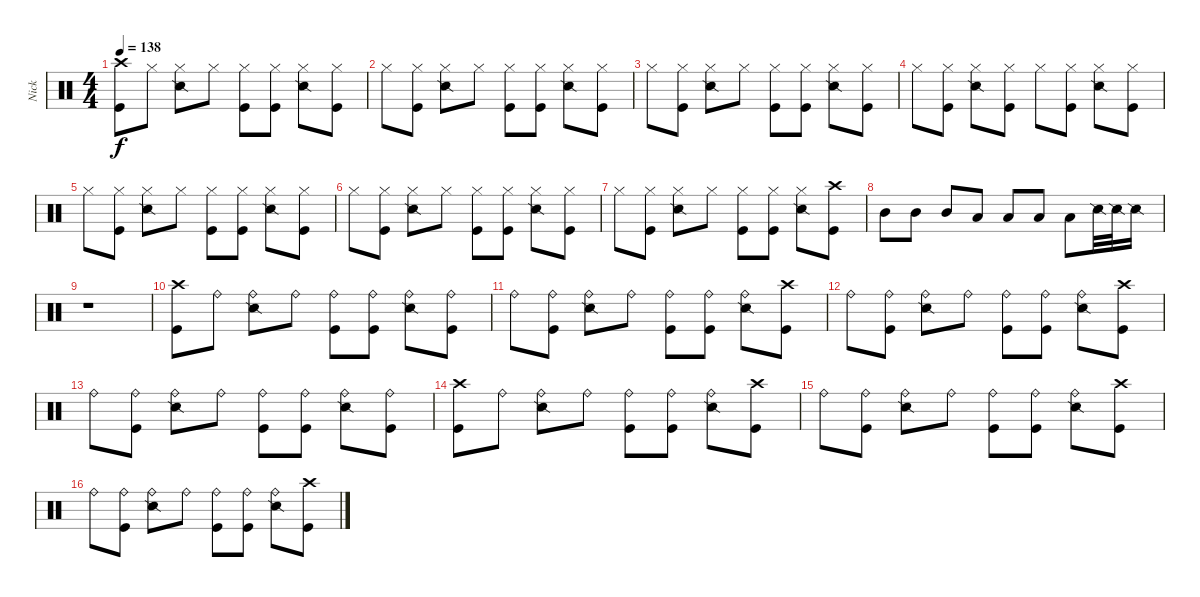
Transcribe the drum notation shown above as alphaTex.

\track ("Nick" "Nick") {instrument percussion}
\staff {score}
\articulation defaults
\ts (4 4)
\tempo 138
\clef neutral
\ks c
("Crash high (hit)" "Kick (hit)").8{dy f} "Hi-Hat (closed)".8 ("Hi-Hat (closed)" "Snare (side stick) 2").8 "Hi-Hat (closed)".8 ("Hi-Hat (closed)" "Kick (hit)").8 ("Hi-Hat (closed)" "Kick (hit)").8 ("Hi-Hat (closed)" "Snare (side stick) 2").8 ("Hi-Hat (closed)" "Kick (hit)").8 |
"Hi-Hat (closed)".8 ("Hi-Hat (closed)" "Kick (hit)").8 ("Hi-Hat (closed)" "Snare (side stick) 2").8 "Hi-Hat (closed)".8 ("Hi-Hat (closed)" "Kick (hit)").8 ("Hi-Hat (closed)" "Kick (hit)").8 ("Hi-Hat (closed)" "Snare (side stick) 2").8 ("Hi-Hat (closed)" "Kick (hit)").8 |
"Hi-Hat (closed)".8 ("Hi-Hat (closed)" "Kick (hit)").8 ("Hi-Hat (closed)" "Snare (side stick) 2").8 "Hi-Hat (closed)".8 ("Hi-Hat (closed)" "Kick (hit)").8 ("Hi-Hat (closed)" "Kick (hit)").8 ("Hi-Hat (closed)" "Snare (side stick) 2").8 ("Hi-Hat (closed)" "Kick (hit)").8 |
"Hi-Hat (closed)".8 ("Hi-Hat (closed)" "Kick (hit)").8 ("Hi-Hat (closed)" "Snare (side stick) 2").8 ("Hi-Hat (closed)" "Kick (hit)").8 "Hi-Hat (closed)".8 ("Hi-Hat (closed)" "Kick (hit)").8 ("Hi-Hat (closed)" "Snare (side stick) 2").8 ("Hi-Hat (closed)" "Kick (hit)").8 |
"Hi-Hat (closed)".8 ("Hi-Hat (closed)" "Kick (hit)").8 ("Hi-Hat (closed)" "Snare (side stick) 2").8 "Hi-Hat (closed)".8 ("Hi-Hat (closed)" "Kick (hit)").8 ("Hi-Hat (closed)" "Kick (hit)").8 ("Hi-Hat (closed)" "Snare (side stick) 2").8 ("Hi-Hat (closed)" "Kick (hit)").8 |
"Hi-Hat (closed)".8 ("Hi-Hat (closed)" "Kick (hit)").8 ("Hi-Hat (closed)" "Snare (side stick) 2").8 "Hi-Hat (closed)".8 ("Hi-Hat (closed)" "Kick (hit)").8 ("Hi-Hat (closed)" "Kick (hit)").8 ("Hi-Hat (closed)" "Snare (side stick) 2").8 ("Hi-Hat (closed)" "Kick (hit)").8 |
"Hi-Hat (closed)".8 ("Hi-Hat (closed)" "Kick (hit)").8 ("Hi-Hat (closed)" "Snare (side stick) 2").8 "Hi-Hat (closed)".8 ("Hi-Hat (closed)" "Kick (hit)").8 ("Hi-Hat (closed)" "Kick (hit)").8 ("Hi-Hat (closed)" "Snare (side stick) 2").8 ("Crash high (hit)" "Kick (hit)").8 |
"Mid Tom (hit)".8 "Mid Tom (hit)".8 "Mid Tom (hit)".8 "Low Tom (hit)".8 "Low Tom (hit)".8 "Low Tom (hit)".8 "Low Floor Tom (hit)".8 "Snare (side stick) 2".32 "Snare (side stick) 2".32 "Snare (side stick) 2".16 |
r.1 |
("Crash high (hit)" "Kick (hit)").8 "Ride (bell)".8 ("Ride (bell)" "Snare (side stick) 2").8 "Ride (bell)".8 ("Ride (bell)" "Kick (hit)").8 ("Ride (bell)" "Kick (hit)").8 ("Ride (bell)" "Snare (side stick) 2").8 ("Ride (bell)" "Kick (hit)").8 |
"Ride (bell)".8 ("Ride (bell)" "Kick (hit)").8 ("Ride (bell)" "Snare (side stick) 2").8 "Ride (bell)".8 ("Ride (bell)" "Kick (hit)").8 ("Ride (bell)" "Kick (hit)").8 ("Ride (bell)" "Snare (side stick) 2").8 ("Crash high (hit)" "Kick (hit)").8 |
"Ride (bell)".8 ("Ride (bell)" "Kick (hit)").8 ("Ride (bell)" "Snare (side stick) 2").8 "Ride (bell)".8 ("Ride (bell)" "Kick (hit)").8 ("Ride (bell)" "Kick (hit)").8 ("Ride (bell)" "Snare (side stick) 2").8 ("Crash high (hit)" "Kick (hit)").8 |
"Ride (bell)".8 ("Ride (bell)" "Kick (hit)").8 ("Ride (bell)" "Snare (side stick) 2").8 "Ride (bell)".8 ("Ride (bell)" "Kick (hit)").8 ("Ride (bell)" "Kick (hit)").8 ("Ride (bell)" "Snare (side stick) 2").8 ("Ride (bell)" "Kick (hit)").8 |
("Crash high (hit)" "Kick (hit)").8 "Ride (bell)".8 ("Ride (bell)" "Snare (side stick) 2").8 "Ride (bell)".8 ("Ride (bell)" "Kick (hit)").8 ("Ride (bell)" "Kick (hit)").8 ("Ride (bell)" "Snare (side stick) 2").8 ("Crash high (hit)" "Kick (hit)").8 |
"Ride (bell)".8 ("Ride (bell)" "Kick (hit)").8 ("Ride (bell)" "Snare (side stick) 2").8 "Ride (bell)".8 ("Ride (bell)" "Kick (hit)").8 ("Ride (bell)" "Kick (hit)").8 ("Ride (bell)" "Snare (side stick) 2").8 ("Crash high (hit)" "Kick (hit)").8 |
"Ride (bell)".8 ("Ride (bell)" "Kick (hit)").8 ("Ride (bell)" "Snare (side stick) 2").8 "Ride (bell)".8 ("Ride (bell)" "Kick (hit)").8 ("Ride (bell)" "Kick (hit)").8 ("Ride (bell)" "Snare (side stick) 2").8 ("Crash high (hit)" "Kick (hit)").8
